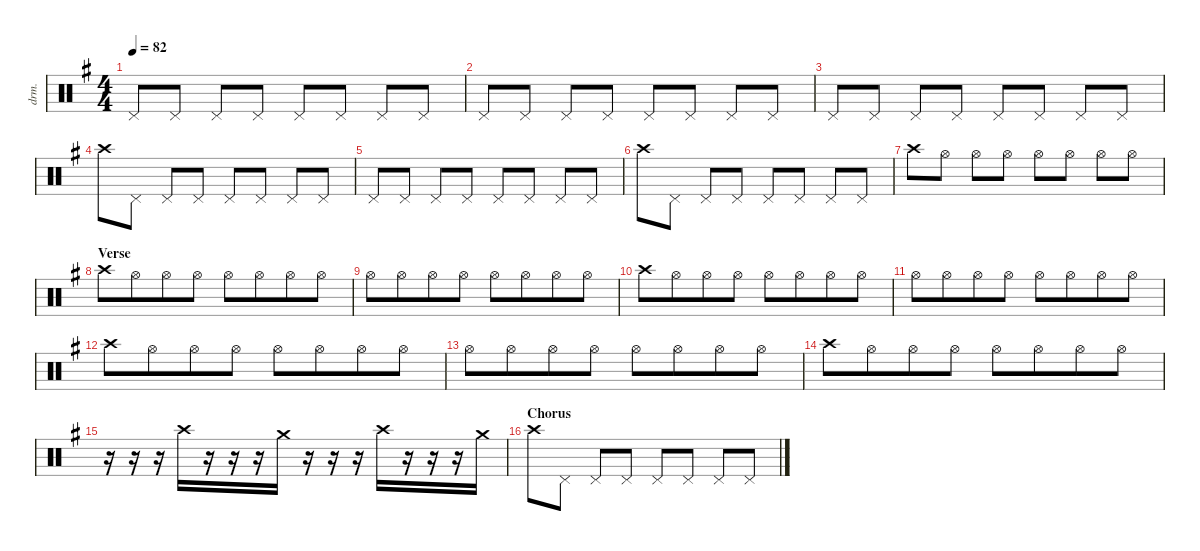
\defaultSystemsLayout 2
\hideDynamics
\bracketExtendMode nobrackets
\otherSystemsTrackNameOrientation horizontal
\track ("Drums (Cymbals)" "drm.") {instrument percussion}
\staff {score}
\articulation defaults
\ts (4 4)
\tempo 82
\clef neutral
\ks g "Pedal Hi-Hat (hit)".8{dy f} "Pedal Hi-Hat (hit)".8 "Pedal Hi-Hat (hit)".8 "Pedal Hi-Hat (hit)".8 "Pedal Hi-Hat (hit)".8 "Pedal Hi-Hat (hit)".8 "Pedal Hi-Hat (hit)".8 "Pedal Hi-Hat (hit)".8
|
"Pedal Hi-Hat (hit)".8 "Pedal Hi-Hat (hit)".8 "Pedal Hi-Hat (hit)".8 "Pedal Hi-Hat (hit)".8 "Pedal Hi-Hat (hit)".8 "Pedal Hi-Hat (hit)".8 "Pedal Hi-Hat (hit)".8 "Pedal Hi-Hat (hit)".8 |
"Pedal Hi-Hat (hit)".8 "Pedal Hi-Hat (hit)".8 "Pedal Hi-Hat (hit)".8 "Pedal Hi-Hat (hit)".8 "Pedal Hi-Hat (hit)".8 "Pedal Hi-Hat (hit)".8 "Pedal Hi-Hat (hit)".8 "Pedal Hi-Hat (hit)".8 |
"Crash high (hit)".8 "Pedal Hi-Hat (hit)".8 "Pedal Hi-Hat (hit)".8 "Pedal Hi-Hat (hit)".8 "Pedal Hi-Hat (hit)".8 "Pedal Hi-Hat (hit)".8 "Pedal Hi-Hat (hit)".8 "Pedal Hi-Hat (hit)".8 |
"Pedal Hi-Hat (hit)".8 "Pedal Hi-Hat (hit)".8 "Pedal Hi-Hat (hit)".8 "Pedal Hi-Hat (hit)".8 "Pedal Hi-Hat (hit)".8 "Pedal Hi-Hat (hit)".8 "Pedal Hi-Hat (hit)".8 "Pedal Hi-Hat (hit)".8 |
"Crash high (hit)".8 "Pedal Hi-Hat (hit)".8 "Pedal Hi-Hat (hit)".8 "Pedal Hi-Hat (hit)".8 "Pedal Hi-Hat (hit)".8 "Pedal Hi-Hat (hit)".8 "Pedal Hi-Hat (hit)".8 "Pedal Hi-Hat (hit)".8 |
"Crash high (hit)".8 "Hi-Hat (open)".8 "Hi-Hat (open)".8 "Hi-Hat (open)".8 "Hi-Hat (open)".8 "Hi-Hat (open)".8 "Hi-Hat (open)".8 "Hi-Hat (open)".8 |
\beaming (8 4 4)
\section ("" "Verse")
"Crash high (hit)".8 "Hi-Hat (open)".8 "Hi-Hat (open)".8 "Hi-Hat (open)".8 "Hi-Hat (open)".8 "Hi-Hat (open)".8 "Hi-Hat (open)".8 "Hi-Hat (open)".8 |
"Hi-Hat (open)".8 "Hi-Hat (open)".8 "Hi-Hat (open)".8 "Hi-Hat (open)".8 "Hi-Hat (open)".8 "Hi-Hat (open)".8 "Hi-Hat (open)".8 "Hi-Hat (open)".8 |
"Crash high (hit)".8 "Hi-Hat (open)".8 "Hi-Hat (open)".8 "Hi-Hat (open)".8 "Hi-Hat (open)".8 "Hi-Hat (open)".8 "Hi-Hat (open)".8 "Hi-Hat (open)".8 |
"Hi-Hat (open)".8 "Hi-Hat (open)".8 "Hi-Hat (open)".8 "Hi-Hat (open)".8 "Hi-Hat (open)".8 "Hi-Hat (open)".8 "Hi-Hat (open)".8 "Hi-Hat (open)".8 |
"Crash high (hit)".8 "Hi-Hat (open)".8 "Hi-Hat (open)".8 "Hi-Hat (open)".8 "Hi-Hat (open)".8 "Hi-Hat (open)".8 "Hi-Hat (open)".8 "Hi-Hat (open)".8 |
"Hi-Hat (open)".8 "Hi-Hat (open)".8 "Hi-Hat (open)".8 "Hi-Hat (open)".8 "Hi-Hat (open)".8 "Hi-Hat (open)".8 "Hi-Hat (open)".8 "Hi-Hat (open)".8 |
"Crash high (hit)".8 "Hi-Hat (open)".8 "Hi-Hat (open)".8 "Hi-Hat (open)".8 "Hi-Hat (open)".8 "Hi-Hat (open)".8 "Hi-Hat (open)".8 "Hi-Hat (open)".8 |
r.16 r.16 r.16 "Crash high (hit)".16{dy mf} r.16 r.16 r.16 "Crash medium (hit)".16 r.16 r.16 r.16 "Crash high (hit)".16 r.16 r.16 r.16 "Crash medium (hit)".16 |
\beaming (8 2 2 2 2)
\section ("" "Chorus")
"Crash high (hit)".8{dy f} "Pedal Hi-Hat (hit)".8 "Pedal Hi-Hat (hit)".8 "Pedal Hi-Hat (hit)".8 "Pedal Hi-Hat (hit)".8 "Pedal Hi-Hat (hit)".8 "Pedal Hi-Hat (hit)".8 "Pedal Hi-Hat (hit)".8
